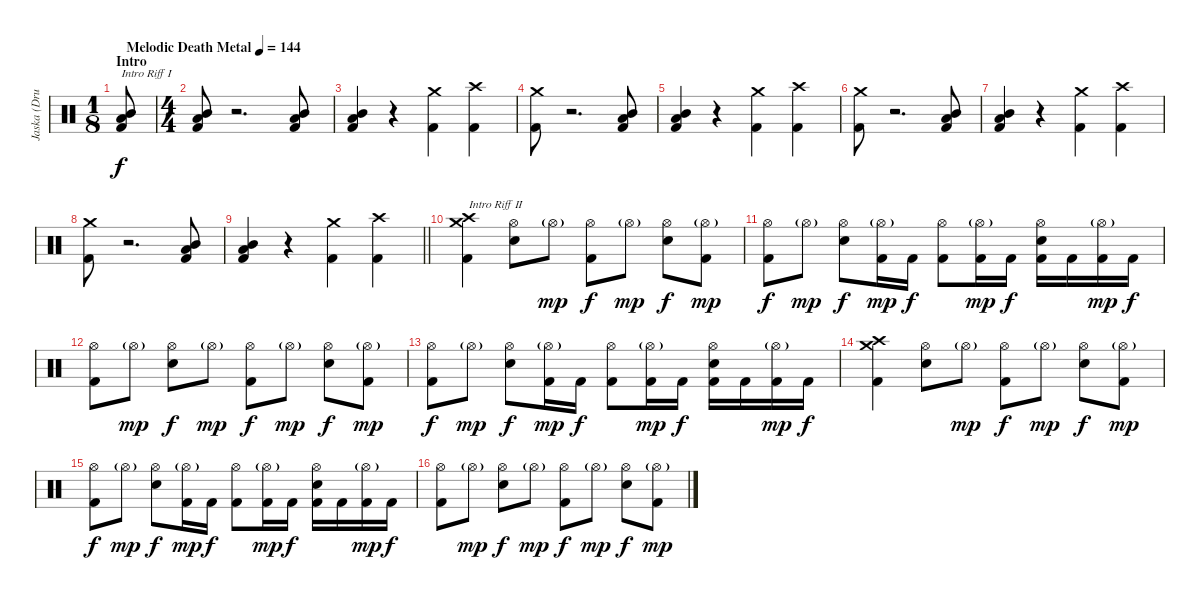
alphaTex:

\track ("Jaska (Drums)" "Jaska (Dru") {instrument percussion}
\staff {score}
\articulation defaults
\ts (1 8)
\section ("" "Intro")
\tempo (144 "Melodic Death Metal")
\clef neutral
\ks c
("Mid Tom (hit)" "Low Tom (hit)" "Kick (hit) 2").8{txt "Intro Riff I" dy f volume 16 balance 8} |
\ts (4 4)
("Mid Tom (hit)" "Low Tom (hit)" "Kick (hit) 2").8 r.2{d} ("Mid Tom (hit)" "Low Tom (hit)" "Kick (hit) 2").8 |
("Mid Tom (hit)" "Low Tom (hit)" "Kick (hit) 2").4 r.4 ("Crash medium (hit)" "Kick (hit) 2").4 ("Crash high (hit)" "Kick (hit) 2").4 |
("Crash medium (hit)" "Kick (hit) 2").8 r.2{d} ("Mid Tom (hit)" "Low Tom (hit)" "Kick (hit) 2").8 |
("Mid Tom (hit)" "Low Tom (hit)" "Kick (hit) 2").4 r.4 ("Crash medium (hit)" "Kick (hit) 2").4 ("Crash high (hit)" "Kick (hit) 2").4 |
("Crash medium (hit)" "Kick (hit) 2").8 r.2{d} ("Mid Tom (hit)" "Low Tom (hit)" "Kick (hit) 2").8 |
("Mid Tom (hit)" "Low Tom (hit)" "Kick (hit) 2").4 r.4 ("Crash medium (hit)" "Kick (hit) 2").4 ("Crash high (hit)" "Kick (hit) 2").4 |
("Crash medium (hit)" "Kick (hit) 2").8 r.2{d} ("Mid Tom (hit)" "Low Tom (hit)" "Kick (hit) 2").8 |
\barLineRight lightlight
("Mid Tom (hit)" "Low Tom (hit)" "Kick (hit) 2").4 r.4 ("Crash medium (hit)" "Kick (hit) 2").4 ("Crash high (hit)" "Kick (hit) 2").4 |
("Crash medium (hit)" "Crash high (hit)" "Kick (hit) 2").4{txt "Intro Riff II"} ("Hi-Hat (open)" "Electric Snare (hit)").8 "Hi-Hat (open)"{g}.8{dy mp} ("Hi-Hat (open)" "Kick (hit) 2").8{dy f} "Hi-Hat (open)"{g}.8{dy mp} ("Hi-Hat (open)" "Electric Snare (hit)").8{dy f} ("Hi-Hat (open)"{g} "Kick (hit) 2").8{dy mp} |
("Hi-Hat (open)" "Kick (hit) 2").8{dy f} "Hi-Hat (open)"{g}.8{dy mp} ("Hi-Hat (open)" "Electric Snare (hit)").8{dy f} ("Hi-Hat (open)"{g} "Kick (hit) 2").16{dy mp} "Kick (hit) 2".16{dy f} ("Hi-Hat (open)" "Kick (hit) 2").8 ("Hi-Hat (open)"{g} "Kick (hit) 2").16{dy mp} "Kick (hit) 2".16{dy f} ("Hi-Hat (open)" "Electric Snare (hit)" "Kick (hit) 2").16 "Kick (hit) 2".16 ("Hi-Hat (open)"{g} "Kick (hit) 2").16{dy mp} "Kick (hit) 2".16{dy f} |
("Hi-Hat (open)" "Kick (hit) 2").8 "Hi-Hat (open)"{g}.8{dy mp} ("Hi-Hat (open)" "Electric Snare (hit)").8{dy f} "Hi-Hat (open)"{g}.8{dy mp} ("Hi-Hat (open)" "Kick (hit) 2").8{dy f} "Hi-Hat (open)"{g}.8{dy mp} ("Hi-Hat (open)" "Electric Snare (hit)").8{dy f} ("Hi-Hat (open)"{g} "Kick (hit) 2").8{dy mp} |
("Hi-Hat (open)" "Kick (hit) 2").8{dy f} "Hi-Hat (open)"{g}.8{dy mp} ("Hi-Hat (open)" "Electric Snare (hit)").8{dy f} ("Hi-Hat (open)"{g} "Kick (hit) 2").16{dy mp} "Kick (hit) 2".16{dy f} ("Hi-Hat (open)" "Kick (hit) 2").8 ("Hi-Hat (open)"{g} "Kick (hit) 2").16{dy mp} "Kick (hit) 2".16{dy f} ("Hi-Hat (open)" "Electric Snare (hit)" "Kick (hit) 2").16 "Kick (hit) 2".16 ("Hi-Hat (open)"{g} "Kick (hit) 2").16{dy mp} "Kick (hit) 2".16{dy f} |
("Crash medium (hit)" "Crash high (hit)" "Kick (hit) 2").4 ("Hi-Hat (open)" "Electric Snare (hit)").8 "Hi-Hat (open)"{g}.8{dy mp} ("Hi-Hat (open)" "Kick (hit) 2").8{dy f} "Hi-Hat (open)"{g}.8{dy mp} ("Hi-Hat (open)" "Electric Snare (hit)").8{dy f} ("Hi-Hat (open)"{g} "Kick (hit) 2").8{dy mp} |
("Hi-Hat (open)" "Kick (hit) 2").8{dy f} "Hi-Hat (open)"{g}.8{dy mp} ("Hi-Hat (open)" "Electric Snare (hit)").8{dy f} ("Hi-Hat (open)"{g} "Kick (hit) 2").16{dy mp} "Kick (hit) 2".16{dy f} ("Hi-Hat (open)" "Kick (hit) 2").8 ("Hi-Hat (open)"{g} "Kick (hit) 2").16{dy mp} "Kick (hit) 2".16{dy f} ("Hi-Hat (open)" "Electric Snare (hit)" "Kick (hit) 2").16 "Kick (hit) 2".16 ("Hi-Hat (open)"{g} "Kick (hit) 2").16{dy mp} "Kick (hit) 2".16{dy f} |
("Hi-Hat (open)" "Kick (hit) 2").8 "Hi-Hat (open)"{g}.8{dy mp} ("Hi-Hat (open)" "Electric Snare (hit)").8{dy f} "Hi-Hat (open)"{g}.8{dy mp} ("Hi-Hat (open)" "Kick (hit) 2").8{dy f} "Hi-Hat (open)"{g}.8{dy mp} ("Hi-Hat (open)" "Electric Snare (hit)").8{dy f} ("Hi-Hat (open)"{g} "Kick (hit) 2").8{dy mp}
